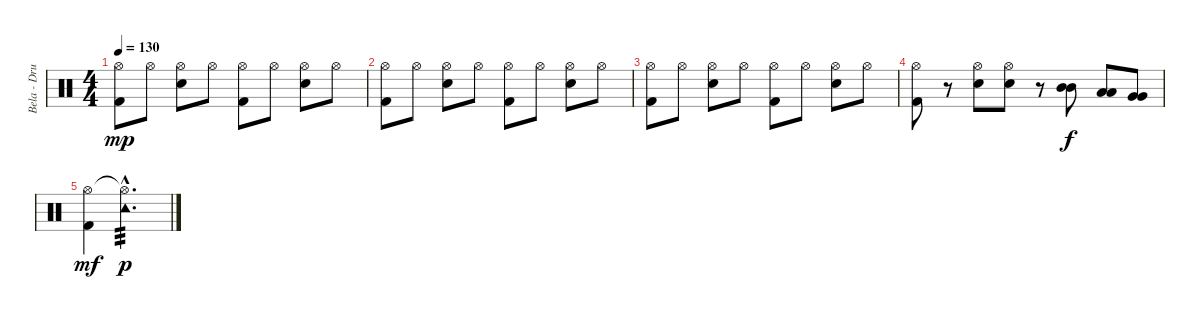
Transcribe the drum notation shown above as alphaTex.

\track ("Bela - Drums" "Bela - Dru") {instrument percussion}
\staff {score}
\articulation defaults
\ts (4 4)
\tempo 130
\clef neutral
\ks c
("Hi-Hat (open)" "Kick (hit) 2").8{dy mp} "Hi-Hat (open)".8 ("Hi-Hat (open)" "Snare (hit) 2").8 "Hi-Hat (open)".8 ("Hi-Hat (open)" "Kick (hit) 2").8 "Hi-Hat (open)".8 ("Hi-Hat (open)" "Snare (hit) 2").8 "Hi-Hat (open)".8 |
("Hi-Hat (open)" "Kick (hit) 2").8 "Hi-Hat (open)".8 ("Hi-Hat (open)" "Snare (hit) 2").8 "Hi-Hat (open)".8 ("Hi-Hat (open)" "Kick (hit) 2").8 "Hi-Hat (open)".8 ("Hi-Hat (open)" "Snare (hit) 2").8 "Hi-Hat (open)".8 |
("Hi-Hat (open)" "Kick (hit) 2").8 "Hi-Hat (open)".8 ("Hi-Hat (open)" "Snare (hit) 2").8 "Hi-Hat (open)".8 ("Hi-Hat (open)" "Kick (hit) 2").8 "Hi-Hat (open)".8 ("Hi-Hat (open)" "Snare (hit) 2").8 "Hi-Hat (open)".8 |
("Hi-Hat (open)" "Kick (hit) 2").8 r.8 ("Hi-Hat (open)" "Snare (hit) 2").8 ("Hi-Hat (open)" "Snare (hit) 2").8 r.8 ("Mid Tom (hit)" "Mid Tom (hit)").8{dy f} ("Low Tom (hit)" "Low Tom (hit)").8 ("Very Low Tom (hit)" "Very Low Tom (hit)").8 |
("Hi-Hat (open)" "Kick (hit) 2").4{dy mf volume 0} ("Hi-Hat (open)"{hac t} "Tambourine (hit)"{hac}).2{d tp 3 dy p}
